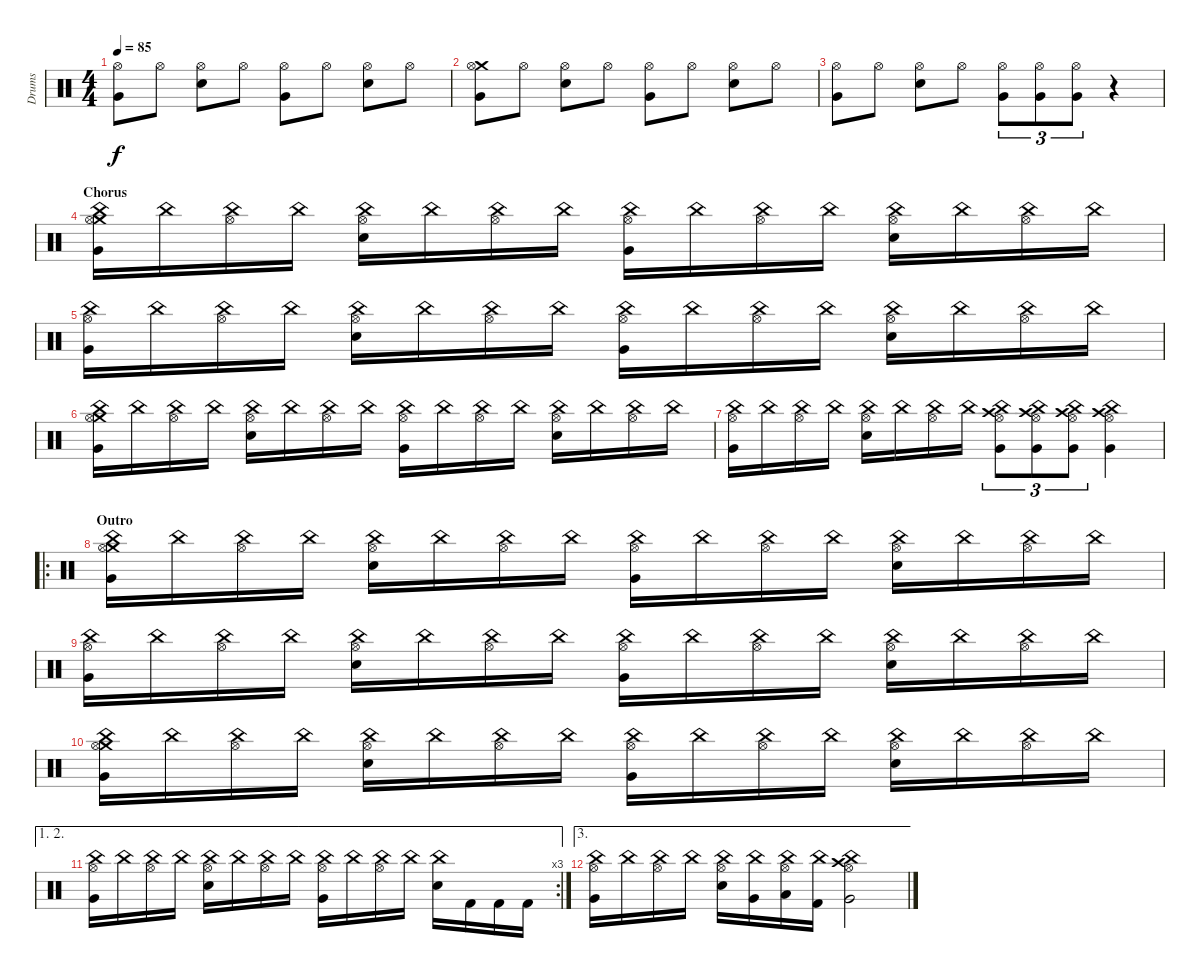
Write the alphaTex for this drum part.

\track ("Drums" "Drums") {instrument percussion}
\staff {score}
\articulation defaults
\ts (4 4)
\tempo 85
\clef neutral
\ks c
("Hi-Hat (open)" "Very Low Tom (hit)").8{dy f} "Hi-Hat (open)".8 ("Hi-Hat (open)" "Electric Snare (hit)").8 "Hi-Hat (open)".8 ("Hi-Hat (open)" "Very Low Tom (hit)").8 "Hi-Hat (open)".8 ("Hi-Hat (open)" "Electric Snare (hit)").8 "Hi-Hat (open)".8 |
("Crash medium (hit)" "Hi-Hat (open)" "Very Low Tom (hit)").8 "Hi-Hat (open)".8 ("Hi-Hat (open)" "Electric Snare (hit)").8 "Hi-Hat (open)".8 ("Hi-Hat (open)" "Very Low Tom (hit)").8 "Hi-Hat (open)".8 ("Hi-Hat (open)" "Electric Snare (hit)").8 "Hi-Hat (open)".8 |
("Hi-Hat (open)" "Very Low Tom (hit)").8 "Hi-Hat (open)".8 ("Hi-Hat (open)" "Electric Snare (hit)").8 "Hi-Hat (open)".8 ("Hi-Hat (open)" "Very Low Tom (hit)").8{tu (3 2)} ("Hi-Hat (open)" "Very Low Tom (hit)").8{tu (3 2)} ("Hi-Hat (open)" "Very Low Tom (hit)").8{tu (3 2)} r.4 |
\section ("" "Chorus")
("Crash medium (hit)" "Hi-Hat (open)" "Very Low Tom (hit)" "China (hit)").16 "China (hit)".16 ("Hi-Hat (open)" "China (hit)").16 "China (hit)".16 ("Hi-Hat (open)" "Electric Snare (hit)" "China (hit)").16 "China (hit)".16 ("Hi-Hat (open)" "China (hit)").16 "China (hit)".16 ("Hi-Hat (open)" "Very Low Tom (hit)" "China (hit)").16 "China (hit)".16 ("Hi-Hat (open)" "China (hit)").16 "China (hit)".16 ("Hi-Hat (open)" "Electric Snare (hit)" "China (hit)").16 "China (hit)".16 ("Hi-Hat (open)" "China (hit)").16 "China (hit)".16 |
("Hi-Hat (open)" "Very Low Tom (hit)" "China (hit)").16 "China (hit)".16 ("Hi-Hat (open)" "China (hit)").16 "China (hit)".16 ("Hi-Hat (open)" "Electric Snare (hit)" "China (hit)").16 "China (hit)".16 ("Hi-Hat (open)" "China (hit)").16 "China (hit)".16 ("Hi-Hat (open)" "Very Low Tom (hit)" "China (hit)").16 "China (hit)".16 ("Hi-Hat (open)" "China (hit)").16 "China (hit)".16 ("Hi-Hat (open)" "Electric Snare (hit)" "China (hit)").16 "China (hit)".16 ("Hi-Hat (open)" "China (hit)").16 "China (hit)".16 |
("Crash medium (hit)" "Hi-Hat (open)" "Very Low Tom (hit)" "China (hit)").16 "China (hit)".16 ("Hi-Hat (open)" "China (hit)").16 "China (hit)".16 ("Hi-Hat (open)" "Electric Snare (hit)" "China (hit)").16 "China (hit)".16 ("Hi-Hat (open)" "China (hit)").16 "China (hit)".16 ("Hi-Hat (open)" "Very Low Tom (hit)" "China (hit)").16 "China (hit)".16 ("Hi-Hat (open)" "China (hit)").16 "China (hit)".16 ("Hi-Hat (open)" "Electric Snare (hit)" "China (hit)").16 "China (hit)".16 ("Hi-Hat (open)" "China (hit)").16 "China (hit)".16 |
("Hi-Hat (open)" "Very Low Tom (hit)" "China (hit)").16 "China (hit)".16 ("Hi-Hat (open)" "China (hit)").16 "China (hit)".16 ("Hi-Hat (open)" "Electric Snare (hit)" "China (hit)").16 "China (hit)".16 ("Hi-Hat (open)" "China (hit)").16 "China (hit)".16 ("Crash high (hit)" "Hi-Hat (open)" "Very Low Tom (hit)" "China (hit)").8{tu (3 2)} ("Crash high (hit)" "Hi-Hat (open)" "Very Low Tom (hit)" "China (hit)").8{tu (3 2)} ("Crash high (hit)" "Hi-Hat (open)" "Very Low Tom (hit)" "China (hit)").8{tu (3 2)} ("Crash high (hit)" "Hi-Hat (open)" "Very Low Tom (hit)" "China (hit)").4 |
\ro
\section ("" "Outro")
("Crash medium (hit)" "Hi-Hat (open)" "Very Low Tom (hit)" "China (hit)").16 "China (hit)".16 ("Hi-Hat (open)" "China (hit)").16 "China (hit)".16 ("Hi-Hat (open)" "Electric Snare (hit)" "China (hit)").16 "China (hit)".16 ("Hi-Hat (open)" "China (hit)").16 "China (hit)".16 ("Hi-Hat (open)" "Very Low Tom (hit)" "China (hit)").16 "China (hit)".16 ("Hi-Hat (open)" "China (hit)").16 "China (hit)".16 ("Hi-Hat (open)" "Electric Snare (hit)" "China (hit)").16 "China (hit)".16 ("Hi-Hat (open)" "China (hit)").16 "China (hit)".16 |
("Hi-Hat (open)" "Very Low Tom (hit)" "China (hit)").16 "China (hit)".16 ("Hi-Hat (open)" "China (hit)").16 "China (hit)".16 ("Hi-Hat (open)" "Electric Snare (hit)" "China (hit)").16 "China (hit)".16 ("Hi-Hat (open)" "China (hit)").16 "China (hit)".16 ("Hi-Hat (open)" "Very Low Tom (hit)" "China (hit)").16 "China (hit)".16 ("Hi-Hat (open)" "China (hit)").16 "China (hit)".16 ("Hi-Hat (open)" "Electric Snare (hit)" "China (hit)").16 "China (hit)".16 ("Hi-Hat (open)" "China (hit)").16 "China (hit)".16 |
("Crash medium (hit)" "Hi-Hat (open)" "Very Low Tom (hit)" "China (hit)").16 "China (hit)".16 ("Hi-Hat (open)" "China (hit)").16 "China (hit)".16 ("Hi-Hat (open)" "Electric Snare (hit)" "China (hit)").16 "China (hit)".16 ("Hi-Hat (open)" "China (hit)").16 "China (hit)".16 ("Hi-Hat (open)" "Very Low Tom (hit)" "China (hit)").16 "China (hit)".16 ("Hi-Hat (open)" "China (hit)").16 "China (hit)".16 ("Hi-Hat (open)" "Electric Snare (hit)" "China (hit)").16 "China (hit)".16 ("Hi-Hat (open)" "China (hit)").16 "China (hit)".16 |
\ae (1 2)
\rc 3
("Hi-Hat (open)" "Very Low Tom (hit)" "China (hit)").16 "China (hit)".16 ("Hi-Hat (open)" "China (hit)").16 "China (hit)".16 ("Hi-Hat (open)" "Electric Snare (hit)" "China (hit)").16 "China (hit)".16 ("Hi-Hat (open)" "China (hit)").16 "China (hit)".16 ("Hi-Hat (open)" "Very Low Tom (hit)" "China (hit)").16 "China (hit)".16 ("Hi-Hat (open)" "China (hit)").16 "China (hit)".16 ("China (hit)" "Electric Snare (hit)").16 "Kick (hit) 2".16 "Kick (hit) 2".16 "Kick (hit) 2".16 |
\ae 3
("Hi-Hat (open)" "Very Low Tom (hit)" "China (hit)").16 "China (hit)".16 ("Hi-Hat (open)" "China (hit)").16 "China (hit)".16 ("Hi-Hat (open)" "Electric Snare (hit)" "China (hit)").16 ("Very Low Tom (hit)" "China (hit)").16 ("Low Floor Tom (hit)" "Hi-Hat (open)" "China (hit)").16 ("Kick (hit) 2" "China (hit)").16 ("Crash high (hit)" "Hi-Hat (open)" "Very Low Tom (hit)" "China (hit)").2
